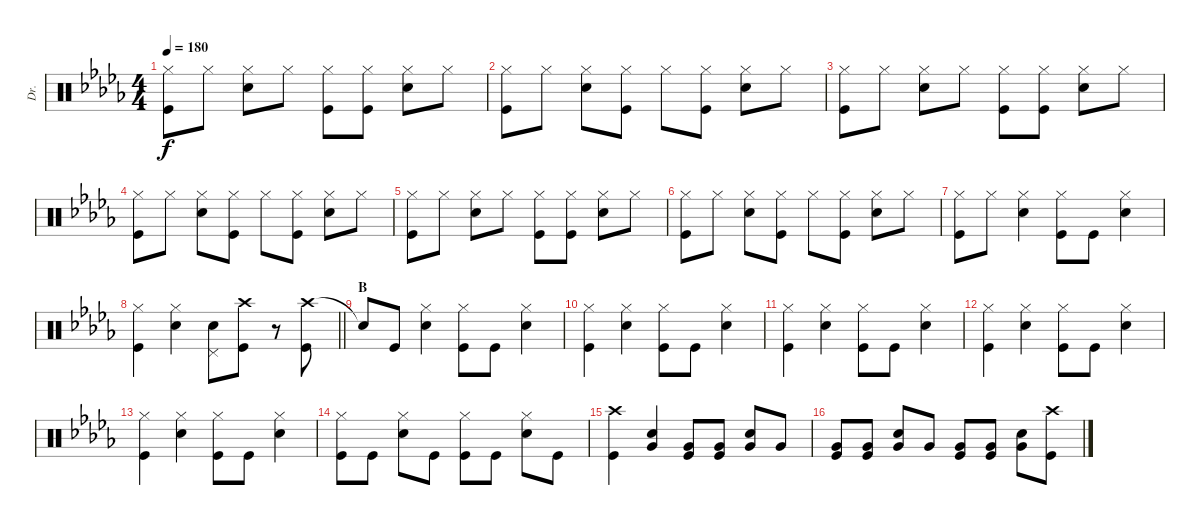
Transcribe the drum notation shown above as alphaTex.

\track ("Dr." "Dr.") {instrument percussion}
\staff {score}
\articulation defaults
\ts (4 4)
\tempo 180
\clef neutral
\ks db
("Hi-Hat (closed)" "Kick (hit)").8{dy f} "Hi-Hat (closed)".8 ("Hi-Hat (closed)" "Snare (hit) 2").8 "Hi-Hat (closed)".8 ("Hi-Hat (closed)" "Kick (hit)").8 ("Hi-Hat (closed)" "Kick (hit)").8 ("Hi-Hat (closed)" "Snare (hit) 2").8 "Hi-Hat (closed)".8 |
("Hi-Hat (closed)" "Kick (hit)").8 "Hi-Hat (closed)".8 ("Hi-Hat (closed)" "Snare (hit) 2").8 ("Hi-Hat (closed)" "Kick (hit)").8 "Hi-Hat (closed)".8 ("Hi-Hat (closed)" "Kick (hit)").8 ("Hi-Hat (closed)" "Snare (hit) 2").8 "Hi-Hat (closed)".8 |
("Hi-Hat (closed)" "Kick (hit)").8 "Hi-Hat (closed)".8 ("Hi-Hat (closed)" "Snare (hit) 2").8 "Hi-Hat (closed)".8 ("Hi-Hat (closed)" "Kick (hit)").8 ("Hi-Hat (closed)" "Kick (hit)").8 ("Hi-Hat (closed)" "Snare (hit) 2").8 "Hi-Hat (closed)".8 |
("Hi-Hat (closed)" "Kick (hit)").8 "Hi-Hat (closed)".8 ("Hi-Hat (closed)" "Snare (hit) 2").8 ("Hi-Hat (closed)" "Kick (hit)").8 "Hi-Hat (closed)".8 ("Hi-Hat (closed)" "Kick (hit)").8 ("Hi-Hat (closed)" "Snare (hit) 2").8 "Hi-Hat (closed)".8 |
("Hi-Hat (closed)" "Kick (hit)").8 "Hi-Hat (closed)".8 ("Hi-Hat (closed)" "Snare (hit) 2").8 "Hi-Hat (closed)".8 ("Hi-Hat (closed)" "Kick (hit)").8 ("Hi-Hat (closed)" "Kick (hit)").8 ("Hi-Hat (closed)" "Snare (hit) 2").8 "Hi-Hat (closed)".8 |
("Hi-Hat (closed)" "Kick (hit)").8 "Hi-Hat (closed)".8 ("Hi-Hat (closed)" "Snare (hit) 2").8 ("Hi-Hat (closed)" "Kick (hit)").8 "Hi-Hat (closed)".8 ("Hi-Hat (closed)" "Kick (hit)").8 ("Hi-Hat (closed)" "Snare (hit) 2").8 "Hi-Hat (closed)".8 |
("Hi-Hat (closed)" "Kick (hit)").8 "Hi-Hat (closed)".8 ("Hi-Hat (closed)" "Snare (hit) 2").4 ("Hi-Hat (closed)" "Kick (hit)").8 "Kick (hit)".8 ("Hi-Hat (closed)" "Snare (hit) 2").4 |
\barLineRight lightlight
("Hi-Hat (closed)" "Kick (hit)").4 ("Hi-Hat (closed)" "Snare (hit) 2").4 ("Snare (hit) 2" "Pedal Hi-Hat (hit)").8 ("Crash high (hit)" "Kick (hit)").8 r.8 ("Crash high (hit)" "Kick (hit)").8 |
\section ("" "B")
"Snare (hit)"{t}.8 "Kick (hit)".8 ("Hi-Hat (closed)" "Snare (hit) 2").4 ("Hi-Hat (closed)" "Kick (hit)").8 "Kick (hit)".8 ("Hi-Hat (closed)" "Snare (hit) 2").4 |
("Hi-Hat (closed)" "Kick (hit)").4 ("Hi-Hat (closed)" "Snare (hit) 2").4 ("Hi-Hat (closed)" "Kick (hit)").8 "Kick (hit)".8 ("Hi-Hat (closed)" "Snare (hit) 2").4 |
("Hi-Hat (closed)" "Kick (hit)").4 ("Hi-Hat (closed)" "Snare (hit) 2").4 ("Hi-Hat (closed)" "Kick (hit)").8 "Kick (hit)".8 ("Hi-Hat (closed)" "Snare (hit) 2").4 |
("Hi-Hat (closed)" "Kick (hit)").4 ("Hi-Hat (closed)" "Snare (hit) 2").4 ("Hi-Hat (closed)" "Kick (hit)").8 "Kick (hit)".8 ("Hi-Hat (closed)" "Snare (hit) 2").4 |
("Hi-Hat (closed)" "Kick (hit)").4 ("Hi-Hat (closed)" "Snare (hit) 2").4 ("Hi-Hat (closed)" "Kick (hit)").8 "Kick (hit)".8 ("Hi-Hat (closed)" "Snare (hit) 2").4 |
("Hi-Hat (closed)" "Kick (hit)").8 "Kick (hit)".8 ("Hi-Hat (closed)" "Snare (hit) 2").8 "Kick (hit)".8 ("Hi-Hat (closed)" "Kick (hit)").8 "Kick (hit)".8 ("Hi-Hat (closed)" "Snare (hit) 2").8 "Kick (hit)".8 |
("Crash high (hit)" "Kick (hit)").4 ("Snare (hit) 2" "Very Low Tom (hit)").4 ("Very Low Tom (hit)" "Kick (hit)").8 ("Very Low Tom (hit)" "Kick (hit)").8 ("Snare (hit) 2" "Very Low Tom (hit)").8 "Very Low Tom (hit)".8 |
("Very Low Tom (hit)" "Kick (hit)").8 ("Very Low Tom (hit)" "Kick (hit)").8 ("Snare (hit) 2" "Very Low Tom (hit)").8 "Very Low Tom (hit)".8 ("Very Low Tom (hit)" "Kick (hit)").8 ("Very Low Tom (hit)" "Kick (hit)").8 ("Snare (hit) 2" "Very Low Tom (hit)").8 ("Crash high (hit)" "Kick (hit)").8
